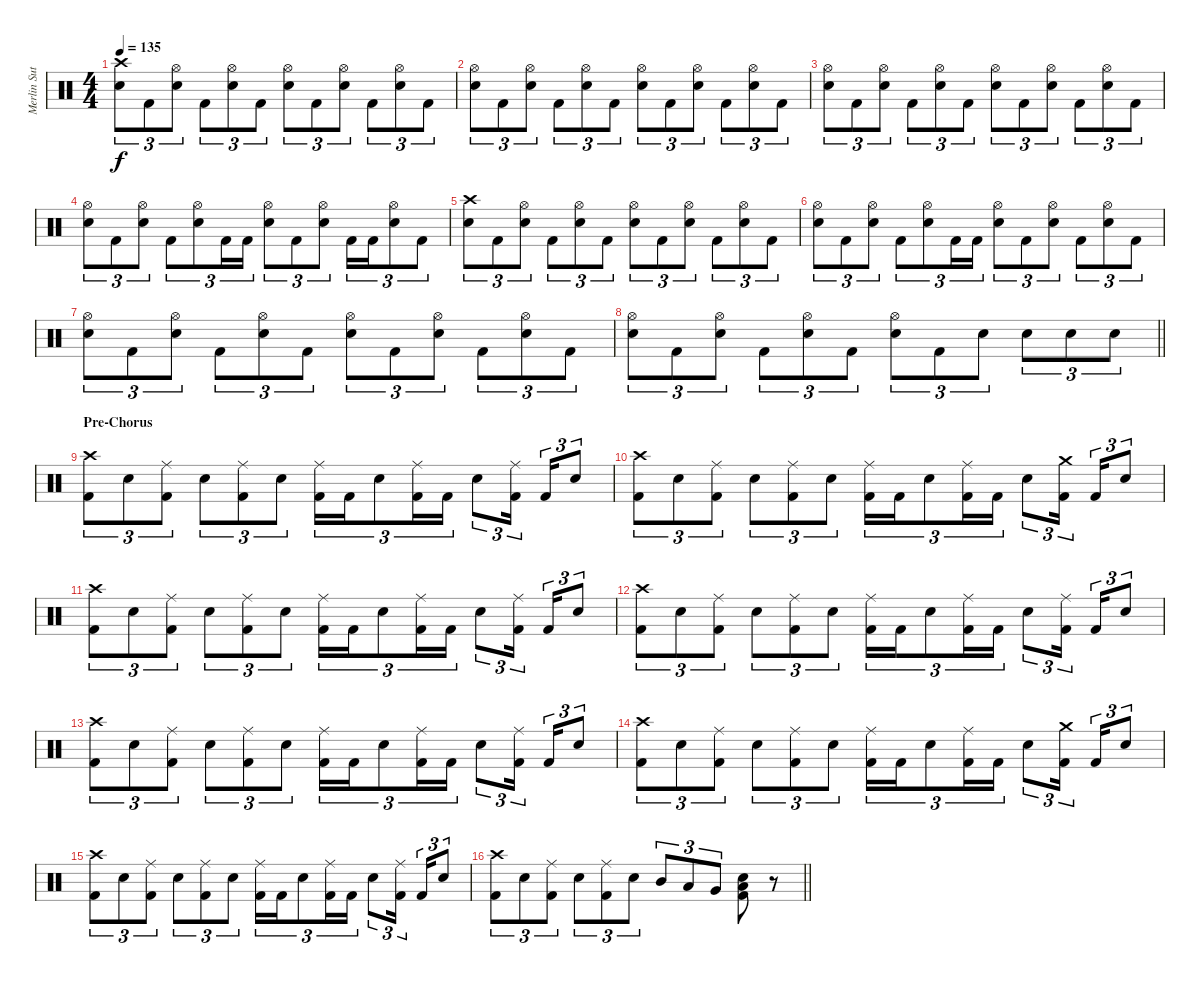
\track ("Merlin Sutter" "Merlin Sut") {instrument percussion}
\staff {score}
\articulation defaults
\ts (4 4)
\tempo 135
\clef neutral
\ks c
("Crash high (hit)" "Snare (hit) 2").8{tu (3 2) dy f} "Kick (hit) 2".8{tu (3 2)} ("Hi-Hat (open)" "Snare (hit) 2").8{tu (3 2)} "Kick (hit) 2".8{tu (3 2)} ("Hi-Hat (open)" "Snare (hit) 2").8{tu (3 2)} "Kick (hit) 2".8{tu (3 2)} ("Hi-Hat (open)" "Snare (hit) 2").8{tu (3 2)} "Kick (hit) 2".8{tu (3 2)} ("Hi-Hat (open)" "Snare (hit) 2").8{tu (3 2)} "Kick (hit) 2".8{tu (3 2)} ("Hi-Hat (open)" "Snare (hit) 2").8{tu (3 2)} "Kick (hit) 2".8{tu (3 2)} |
("Hi-Hat (open)" "Snare (hit) 2").8{tu (3 2)} "Kick (hit) 2".8{tu (3 2)} ("Hi-Hat (open)" "Snare (hit) 2").8{tu (3 2)} "Kick (hit) 2".8{tu (3 2)} ("Hi-Hat (open)" "Snare (hit) 2").8{tu (3 2)} "Kick (hit) 2".8{tu (3 2)} ("Hi-Hat (open)" "Snare (hit) 2").8{tu (3 2)} "Kick (hit) 2".8{tu (3 2)} ("Hi-Hat (open)" "Snare (hit) 2").8{tu (3 2)} "Kick (hit) 2".8{tu (3 2)} ("Hi-Hat (open)" "Snare (hit) 2").8{tu (3 2)} "Kick (hit) 2".8{tu (3 2)} |
("Hi-Hat (open)" "Snare (hit) 2").8{tu (3 2)} "Kick (hit) 2".8{tu (3 2)} ("Hi-Hat (open)" "Snare (hit) 2").8{tu (3 2)} "Kick (hit) 2".8{tu (3 2)} ("Hi-Hat (open)" "Snare (hit) 2").8{tu (3 2)} "Kick (hit) 2".8{tu (3 2)} ("Hi-Hat (open)" "Snare (hit) 2").8{tu (3 2)} "Kick (hit) 2".8{tu (3 2)} ("Hi-Hat (open)" "Snare (hit) 2").8{tu (3 2)} "Kick (hit) 2".8{tu (3 2)} ("Hi-Hat (open)" "Snare (hit) 2").8{tu (3 2)} "Kick (hit) 2".8{tu (3 2)} |
("Hi-Hat (open)" "Snare (hit) 2").8{tu (3 2)} "Kick (hit) 2".8{tu (3 2)} ("Hi-Hat (open)" "Snare (hit) 2").8{tu (3 2)} "Kick (hit) 2".8{tu (3 2)} ("Hi-Hat (open)" "Snare (hit) 2").8{tu (3 2)} "Kick (hit) 2".16{tu (3 2)} "Kick (hit) 2".16{tu (3 2)} ("Hi-Hat (open)" "Snare (hit) 2").8{tu (3 2)} "Kick (hit) 2".8{tu (3 2)} ("Hi-Hat (open)" "Snare (hit) 2").8{tu (3 2)} "Kick (hit) 2".16{tu (3 2)} "Kick (hit) 2".16{tu (3 2)} ("Hi-Hat (open)" "Snare (hit) 2").8{tu (3 2)} "Kick (hit) 2".8{tu (3 2)} |
("Crash high (hit)" "Snare (hit) 2").8{tu (3 2)} "Kick (hit) 2".8{tu (3 2)} ("Hi-Hat (open)" "Snare (hit) 2").8{tu (3 2)} "Kick (hit) 2".8{tu (3 2)} ("Hi-Hat (open)" "Snare (hit) 2").8{tu (3 2)} "Kick (hit) 2".8{tu (3 2)} ("Hi-Hat (open)" "Snare (hit) 2").8{tu (3 2)} "Kick (hit) 2".8{tu (3 2)} ("Hi-Hat (open)" "Snare (hit) 2").8{tu (3 2)} "Kick (hit) 2".8{tu (3 2)} ("Hi-Hat (open)" "Snare (hit) 2").8{tu (3 2)} "Kick (hit) 2".8{tu (3 2)} |
("Hi-Hat (open)" "Snare (hit) 2").8{tu (3 2)} "Kick (hit) 2".8{tu (3 2)} ("Hi-Hat (open)" "Snare (hit) 2").8{tu (3 2)} "Kick (hit) 2".8{tu (3 2)} ("Hi-Hat (open)" "Snare (hit) 2").8{tu (3 2)} "Kick (hit) 2".16{tu (3 2)} "Kick (hit) 2".16{tu (3 2)} ("Hi-Hat (open)" "Snare (hit) 2").8{tu (3 2)} "Kick (hit) 2".8{tu (3 2)} ("Hi-Hat (open)" "Snare (hit) 2").8{tu (3 2)} "Kick (hit) 2".8{tu (3 2)} ("Hi-Hat (open)" "Snare (hit) 2").8{tu (3 2)} "Kick (hit) 2".8{tu (3 2)} |
("Hi-Hat (open)" "Snare (hit) 2").8{tu (3 2)} "Kick (hit) 2".8{tu (3 2)} ("Hi-Hat (open)" "Snare (hit) 2").8{tu (3 2)} "Kick (hit) 2".8{tu (3 2)} ("Hi-Hat (open)" "Snare (hit) 2").8{tu (3 2)} "Kick (hit) 2".8{tu (3 2)} ("Hi-Hat (open)" "Snare (hit) 2").8{tu (3 2)} "Kick (hit) 2".8{tu (3 2)} ("Hi-Hat (open)" "Snare (hit) 2").8{tu (3 2)} "Kick (hit) 2".8{tu (3 2)} ("Hi-Hat (open)" "Snare (hit) 2").8{tu (3 2)} "Kick (hit) 2".8{tu (3 2)} |
\barLineRight lightlight
("Hi-Hat (open)" "Snare (hit) 2").8{tu (3 2)} "Kick (hit) 2".8{tu (3 2)} ("Hi-Hat (open)" "Snare (hit) 2").8{tu (3 2)} "Kick (hit) 2".8{tu (3 2)} ("Hi-Hat (open)" "Snare (hit) 2").8{tu (3 2)} "Kick (hit) 2".8{tu (3 2)} ("Hi-Hat (open)" "Snare (hit) 2").8{tu (3 2)} "Kick (hit) 2".8{tu (3 2)} "Snare (hit) 2".8{tu (3 2)} "Snare (hit) 2".8{tu (3 2)} "Snare (hit) 2".8{tu (3 2)} "Snare (hit) 2".8{tu (3 2)} |
\section ("" "Pre-Chorus")
("Crash high (hit)" "Kick (hit) 2").8{tu (3 2)} "Snare (hit) 2".8{tu (3 2)} ("Ride (middle)" "Kick (hit) 2").8{tu (3 2)} "Snare (hit) 2".8{tu (3 2)} ("Ride (middle)" "Kick (hit) 2").8{tu (3 2)} "Snare (hit) 2".8{tu (3 2)} ("Ride (middle)" "Kick (hit) 2").16{tu (3 2)} "Kick (hit) 2".16{tu (3 2)} "Snare (hit) 2".8{tu (3 2)} ("Ride (middle)" "Kick (hit) 2").16{tu (3 2)} "Kick (hit) 2".16{tu (3 2)} "Snare (hit) 2".8{tu (3 2)} ("Ride (middle)" "Kick (hit) 2").16{tu (3 2) beam splitsecondary} "Kick (hit) 2".16{tu (3 2)} "Snare (hit) 2".8{tu (3 2)} |
("Crash high (hit)" "Kick (hit) 2").8{tu (3 2)} "Snare (hit) 2".8{tu (3 2)} ("Ride (middle)" "Kick (hit) 2").8{tu (3 2)} "Snare (hit) 2".8{tu (3 2)} ("Ride (middle)" "Kick (hit) 2").8{tu (3 2)} "Snare (hit) 2".8{tu (3 2)} ("Ride (middle)" "Kick (hit) 2").16{tu (3 2)} "Kick (hit) 2".16{tu (3 2)} "Snare (hit) 2".8{tu (3 2)} ("Ride (middle)" "Kick (hit) 2").16{tu (3 2)} "Kick (hit) 2".16{tu (3 2)} "Snare (hit) 2".8{tu (3 2)} ("Crash medium (hit)" "Kick (hit) 2").16{tu (3 2) beam splitsecondary} "Kick (hit) 2".16{tu (3 2)} "Snare (hit) 2".8{tu (3 2)} |
("Crash high (hit)" "Kick (hit) 2").8{tu (3 2)} "Snare (hit) 2".8{tu (3 2)} ("Ride (middle)" "Kick (hit) 2").8{tu (3 2)} "Snare (hit) 2".8{tu (3 2)} ("Ride (middle)" "Kick (hit) 2").8{tu (3 2)} "Snare (hit) 2".8{tu (3 2)} ("Ride (middle)" "Kick (hit) 2").16{tu (3 2)} "Kick (hit) 2".16{tu (3 2)} "Snare (hit) 2".8{tu (3 2)} ("Ride (middle)" "Kick (hit) 2").16{tu (3 2)} "Kick (hit) 2".16{tu (3 2)} "Snare (hit) 2".8{tu (3 2)} ("Ride (middle)" "Kick (hit) 2").16{tu (3 2) beam splitsecondary} "Kick (hit) 2".16{tu (3 2)} "Snare (hit) 2".8{tu (3 2)} |
("Crash high (hit)" "Kick (hit) 2").8{tu (3 2)} "Snare (hit) 2".8{tu (3 2)} ("Ride (middle)" "Kick (hit) 2").8{tu (3 2)} "Snare (hit) 2".8{tu (3 2)} ("Ride (middle)" "Kick (hit) 2").8{tu (3 2)} "Snare (hit) 2".8{tu (3 2)} ("Ride (middle)" "Kick (hit) 2").16{tu (3 2)} "Kick (hit) 2".16{tu (3 2)} "Snare (hit) 2".8{tu (3 2)} ("Ride (middle)" "Kick (hit) 2").16{tu (3 2)} "Kick (hit) 2".16{tu (3 2)} "Snare (hit) 2".8{tu (3 2)} ("Ride (middle)" "Kick (hit) 2").16{tu (3 2) beam splitsecondary} "Kick (hit) 2".16{tu (3 2)} "Snare (hit) 2".8{tu (3 2)} |
("Crash high (hit)" "Kick (hit) 2").8{tu (3 2)} "Snare (hit) 2".8{tu (3 2)} ("Ride (middle)" "Kick (hit) 2").8{tu (3 2)} "Snare (hit) 2".8{tu (3 2)} ("Ride (middle)" "Kick (hit) 2").8{tu (3 2)} "Snare (hit) 2".8{tu (3 2)} ("Ride (middle)" "Kick (hit) 2").16{tu (3 2)} "Kick (hit) 2".16{tu (3 2)} "Snare (hit) 2".8{tu (3 2)} ("Ride (middle)" "Kick (hit) 2").16{tu (3 2)} "Kick (hit) 2".16{tu (3 2)} "Snare (hit) 2".8{tu (3 2)} ("Ride (middle)" "Kick (hit) 2").16{tu (3 2) beam splitsecondary} "Kick (hit) 2".16{tu (3 2)} "Snare (hit) 2".8{tu (3 2)} |
("Crash high (hit)" "Kick (hit) 2").8{tu (3 2)} "Snare (hit) 2".8{tu (3 2)} ("Ride (middle)" "Kick (hit) 2").8{tu (3 2)} "Snare (hit) 2".8{tu (3 2)} ("Ride (middle)" "Kick (hit) 2").8{tu (3 2)} "Snare (hit) 2".8{tu (3 2)} ("Ride (middle)" "Kick (hit) 2").16{tu (3 2)} "Kick (hit) 2".16{tu (3 2)} "Snare (hit) 2".8{tu (3 2)} ("Ride (middle)" "Kick (hit) 2").16{tu (3 2)} "Kick (hit) 2".16{tu (3 2)} "Snare (hit) 2".8{tu (3 2)} ("Crash medium (hit)" "Kick (hit) 2").16{tu (3 2) beam splitsecondary} "Kick (hit) 2".16{tu (3 2)} "Snare (hit) 2".8{tu (3 2)} |
("Crash high (hit)" "Kick (hit) 2").8{tu (3 2)} "Snare (hit) 2".8{tu (3 2)} ("Ride (middle)" "Kick (hit) 2").8{tu (3 2)} "Snare (hit) 2".8{tu (3 2)} ("Ride (middle)" "Kick (hit) 2").8{tu (3 2)} "Snare (hit) 2".8{tu (3 2)} ("Ride (middle)" "Kick (hit) 2").16{tu (3 2)} "Kick (hit) 2".16{tu (3 2)} "Snare (hit) 2".8{tu (3 2)} ("Ride (middle)" "Kick (hit) 2").16{tu (3 2)} "Kick (hit) 2".16{tu (3 2)} "Snare (hit) 2".8{tu (3 2)} ("Ride (middle)" "Kick (hit) 2").16{tu (3 2) beam splitsecondary} "Kick (hit) 2".16{tu (3 2)} "Snare (hit) 2".8{tu (3 2)} |
\barLineRight lightlight
("Crash high (hit)" "Kick (hit) 2").8{tu (3 2)} "Snare (hit) 2".8{tu (3 2)} ("Ride (middle)" "Kick (hit) 2").8{tu (3 2)} "Snare (hit) 2".8{tu (3 2)} ("Ride (middle)" "Kick (hit) 2").8{tu (3 2)} "Snare (hit) 2".8{tu (3 2)} "Mid Tom (hit)".8{tu (3 2)} "Low Tom (hit)".8{tu (3 2)} "Very Low Tom (hit)".8{tu (3 2)} ("Low Floor Tom (hit)" "Snare (hit) 2" "Kick (hit) 2").8 r.8
